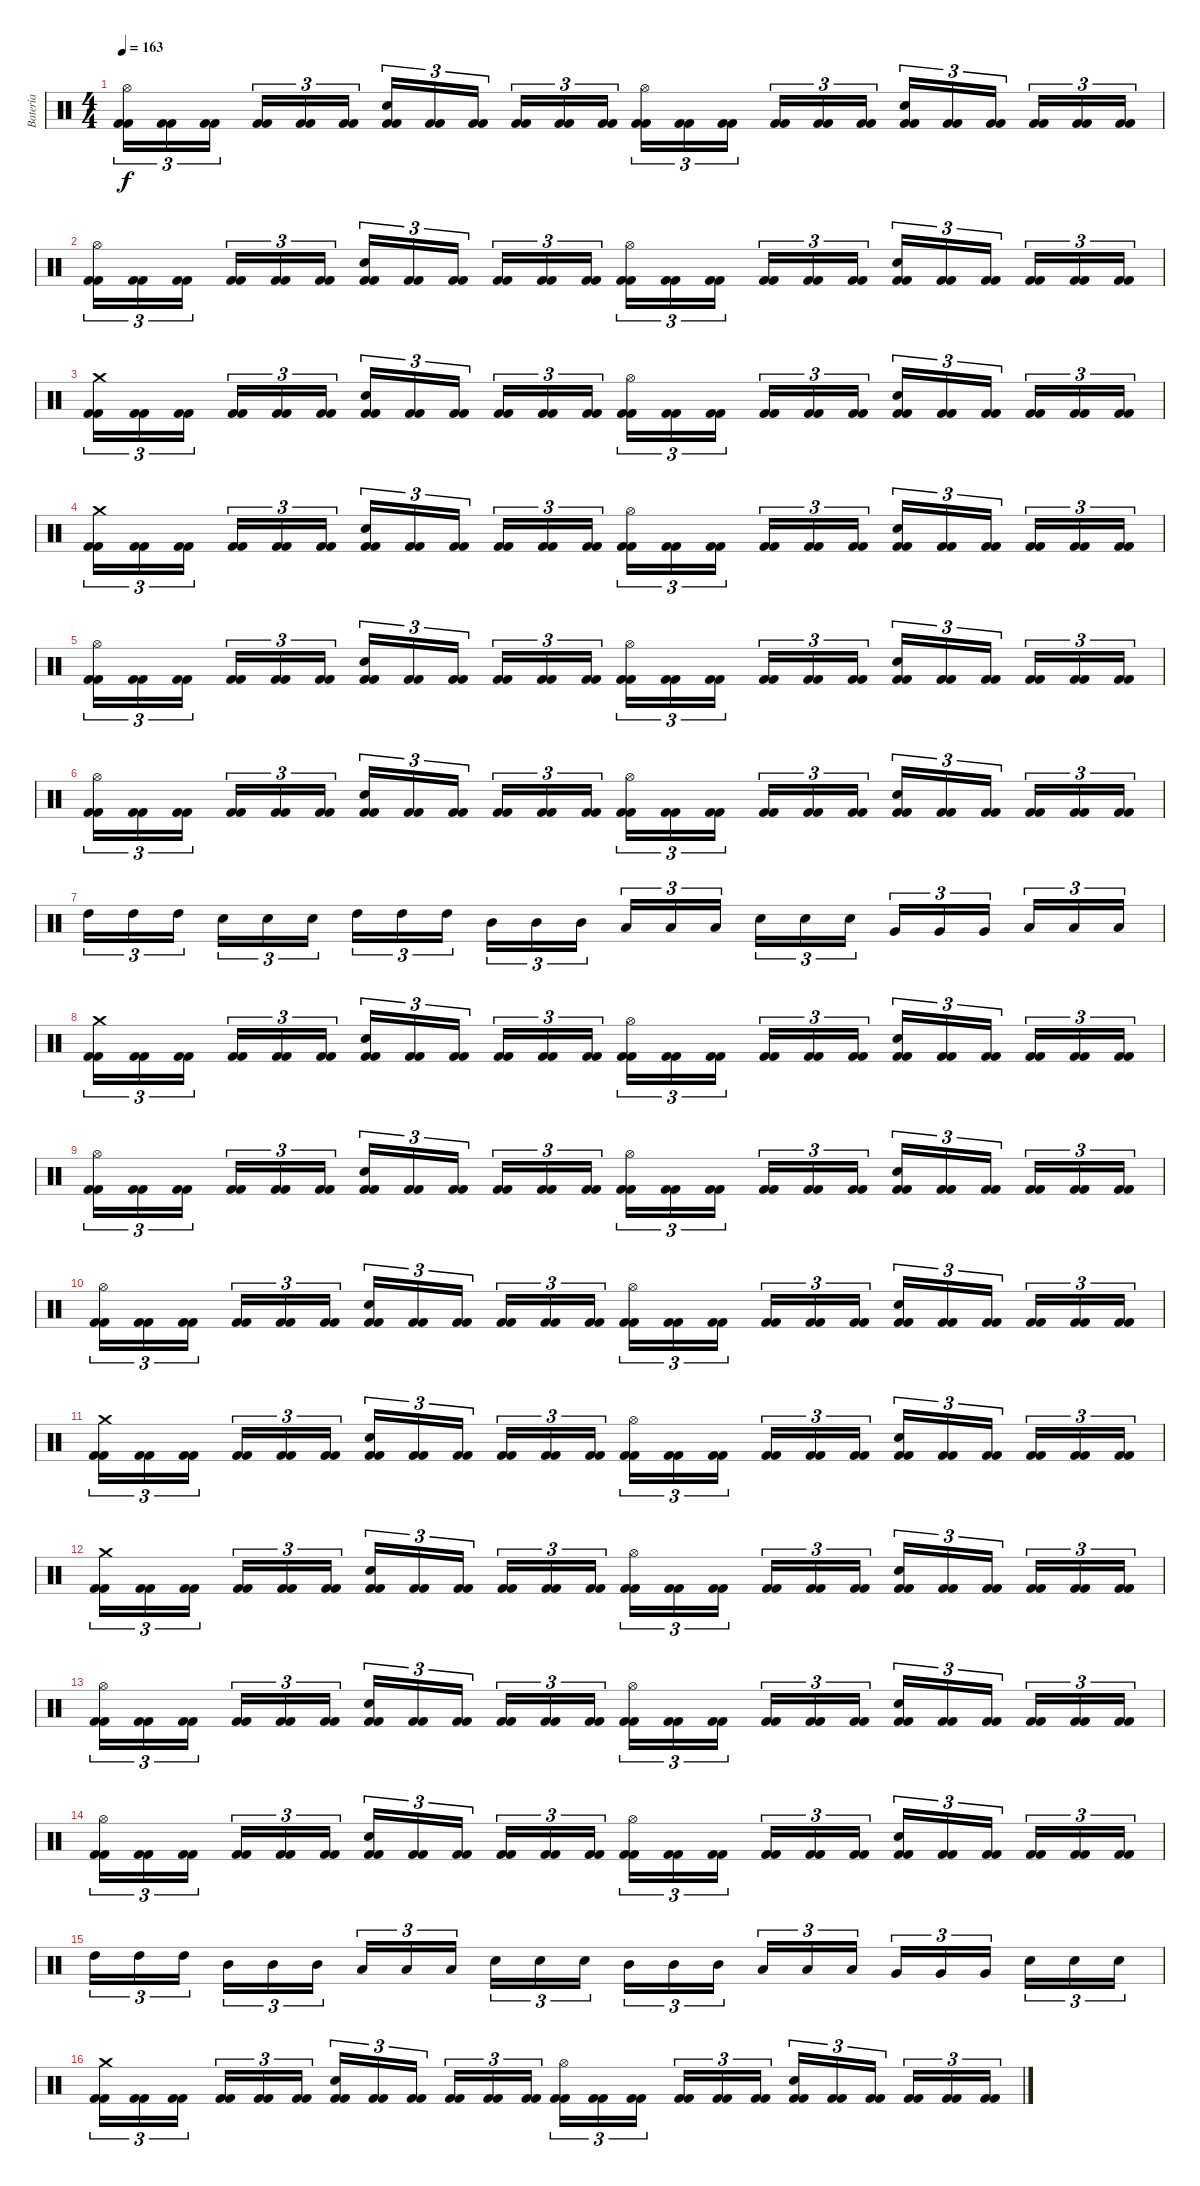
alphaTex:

\track ("Bateria" "Bateria") {instrument percussion}
\staff {score}
\articulation defaults
\ts (4 4)
\tempo 163
\clef neutral
\ks c
("Kick (hit) 2" "Kick (hit) 2" "Hi-Hat (open)").16{tu (3 2) dy f} ("Kick (hit) 2" "Kick (hit) 2").16{tu (3 2)} ("Kick (hit) 2" "Kick (hit) 2").16{tu (3 2)} ("Kick (hit) 2" "Kick (hit) 2").16{tu (3 2)} ("Kick (hit) 2" "Kick (hit) 2").16{tu (3 2)} ("Kick (hit) 2" "Kick (hit) 2").16{tu (3 2)} ("Kick (hit) 2" "Kick (hit) 2" "Snare (hit) 2").16{tu (3 2)} ("Kick (hit) 2" "Kick (hit) 2").16{tu (3 2)} ("Kick (hit) 2" "Kick (hit) 2").16{tu (3 2)} ("Kick (hit) 2" "Kick (hit) 2").16{tu (3 2)} ("Kick (hit) 2" "Kick (hit) 2").16{tu (3 2)} ("Kick (hit) 2" "Kick (hit) 2").16{tu (3 2)} ("Kick (hit) 2" "Kick (hit) 2" "Hi-Hat (open)").16{tu (3 2)} ("Kick (hit) 2" "Kick (hit) 2").16{tu (3 2)} ("Kick (hit) 2" "Kick (hit) 2").16{tu (3 2)} ("Kick (hit) 2" "Kick (hit) 2").16{tu (3 2)} ("Kick (hit) 2" "Kick (hit) 2").16{tu (3 2)} ("Kick (hit) 2" "Kick (hit) 2").16{tu (3 2)} ("Kick (hit) 2" "Kick (hit) 2" "Snare (hit) 2").16{tu (3 2)} ("Kick (hit) 2" "Kick (hit) 2").16{tu (3 2)} ("Kick (hit) 2" "Kick (hit) 2").16{tu (3 2)} ("Kick (hit) 2" "Kick (hit) 2").16{tu (3 2)} ("Kick (hit) 2" "Kick (hit) 2").16{tu (3 2)} ("Kick (hit) 2" "Kick (hit) 2").16{tu (3 2)} |
("Kick (hit) 2" "Kick (hit) 2" "Hi-Hat (open)").16{tu (3 2)} ("Kick (hit) 2" "Kick (hit) 2").16{tu (3 2)} ("Kick (hit) 2" "Kick (hit) 2").16{tu (3 2)} ("Kick (hit) 2" "Kick (hit) 2").16{tu (3 2)} ("Kick (hit) 2" "Kick (hit) 2").16{tu (3 2)} ("Kick (hit) 2" "Kick (hit) 2").16{tu (3 2)} ("Kick (hit) 2" "Kick (hit) 2" "Snare (hit) 2").16{tu (3 2)} ("Kick (hit) 2" "Kick (hit) 2").16{tu (3 2)} ("Kick (hit) 2" "Kick (hit) 2").16{tu (3 2)} ("Kick (hit) 2" "Kick (hit) 2").16{tu (3 2)} ("Kick (hit) 2" "Kick (hit) 2").16{tu (3 2)} ("Kick (hit) 2" "Kick (hit) 2").16{tu (3 2)} ("Kick (hit) 2" "Kick (hit) 2" "Hi-Hat (open)").16{tu (3 2)} ("Kick (hit) 2" "Kick (hit) 2").16{tu (3 2)} ("Kick (hit) 2" "Kick (hit) 2").16{tu (3 2)} ("Kick (hit) 2" "Kick (hit) 2").16{tu (3 2)} ("Kick (hit) 2" "Kick (hit) 2").16{tu (3 2)} ("Kick (hit) 2" "Kick (hit) 2").16{tu (3 2)} ("Kick (hit) 2" "Kick (hit) 2" "Snare (hit) 2").16{tu (3 2)} ("Kick (hit) 2" "Kick (hit) 2").16{tu (3 2)} ("Kick (hit) 2" "Kick (hit) 2").16{tu (3 2)} ("Kick (hit) 2" "Kick (hit) 2").16{tu (3 2)} ("Kick (hit) 2" "Kick (hit) 2").16{tu (3 2)} ("Kick (hit) 2" "Kick (hit) 2").16{tu (3 2)} |
("Kick (hit) 2" "Kick (hit) 2" "Crash medium (hit)").16{tu (3 2)} ("Kick (hit) 2" "Kick (hit) 2").16{tu (3 2)} ("Kick (hit) 2" "Kick (hit) 2").16{tu (3 2)} ("Kick (hit) 2" "Kick (hit) 2").16{tu (3 2)} ("Kick (hit) 2" "Kick (hit) 2").16{tu (3 2)} ("Kick (hit) 2" "Kick (hit) 2").16{tu (3 2)} ("Kick (hit) 2" "Kick (hit) 2" "Snare (hit) 2").16{tu (3 2)} ("Kick (hit) 2" "Kick (hit) 2").16{tu (3 2)} ("Kick (hit) 2" "Kick (hit) 2").16{tu (3 2)} ("Kick (hit) 2" "Kick (hit) 2").16{tu (3 2)} ("Kick (hit) 2" "Kick (hit) 2").16{tu (3 2)} ("Kick (hit) 2" "Kick (hit) 2").16{tu (3 2)} ("Kick (hit) 2" "Kick (hit) 2" "Hi-Hat (open)").16{tu (3 2)} ("Kick (hit) 2" "Kick (hit) 2").16{tu (3 2)} ("Kick (hit) 2" "Kick (hit) 2").16{tu (3 2)} ("Kick (hit) 2" "Kick (hit) 2").16{tu (3 2)} ("Kick (hit) 2" "Kick (hit) 2").16{tu (3 2)} ("Kick (hit) 2" "Kick (hit) 2").16{tu (3 2)} ("Kick (hit) 2" "Kick (hit) 2" "Snare (hit) 2").16{tu (3 2)} ("Kick (hit) 2" "Kick (hit) 2").16{tu (3 2)} ("Kick (hit) 2" "Kick (hit) 2").16{tu (3 2)} ("Kick (hit) 2" "Kick (hit) 2").16{tu (3 2)} ("Kick (hit) 2" "Kick (hit) 2").16{tu (3 2)} ("Kick (hit) 2" "Kick (hit) 2").16{tu (3 2)} |
("Kick (hit) 2" "Kick (hit) 2" "Crash medium (hit)").16{tu (3 2)} ("Kick (hit) 2" "Kick (hit) 2").16{tu (3 2)} ("Kick (hit) 2" "Kick (hit) 2").16{tu (3 2)} ("Kick (hit) 2" "Kick (hit) 2").16{tu (3 2)} ("Kick (hit) 2" "Kick (hit) 2").16{tu (3 2)} ("Kick (hit) 2" "Kick (hit) 2").16{tu (3 2)} ("Kick (hit) 2" "Kick (hit) 2" "Snare (hit) 2").16{tu (3 2)} ("Kick (hit) 2" "Kick (hit) 2").16{tu (3 2)} ("Kick (hit) 2" "Kick (hit) 2").16{tu (3 2)} ("Kick (hit) 2" "Kick (hit) 2").16{tu (3 2)} ("Kick (hit) 2" "Kick (hit) 2").16{tu (3 2)} ("Kick (hit) 2" "Kick (hit) 2").16{tu (3 2)} ("Kick (hit) 2" "Kick (hit) 2" "Hi-Hat (open)").16{tu (3 2)} ("Kick (hit) 2" "Kick (hit) 2").16{tu (3 2)} ("Kick (hit) 2" "Kick (hit) 2").16{tu (3 2)} ("Kick (hit) 2" "Kick (hit) 2").16{tu (3 2)} ("Kick (hit) 2" "Kick (hit) 2").16{tu (3 2)} ("Kick (hit) 2" "Kick (hit) 2").16{tu (3 2)} ("Kick (hit) 2" "Kick (hit) 2" "Snare (hit) 2").16{tu (3 2)} ("Kick (hit) 2" "Kick (hit) 2").16{tu (3 2)} ("Kick (hit) 2" "Kick (hit) 2").16{tu (3 2)} ("Kick (hit) 2" "Kick (hit) 2").16{tu (3 2)} ("Kick (hit) 2" "Kick (hit) 2").16{tu (3 2)} ("Kick (hit) 2" "Kick (hit) 2").16{tu (3 2)} |
("Kick (hit) 2" "Kick (hit) 2" "Hi-Hat (open)").16{tu (3 2)} ("Kick (hit) 2" "Kick (hit) 2").16{tu (3 2)} ("Kick (hit) 2" "Kick (hit) 2").16{tu (3 2)} ("Kick (hit) 2" "Kick (hit) 2").16{tu (3 2)} ("Kick (hit) 2" "Kick (hit) 2").16{tu (3 2)} ("Kick (hit) 2" "Kick (hit) 2").16{tu (3 2)} ("Kick (hit) 2" "Kick (hit) 2" "Snare (hit) 2").16{tu (3 2)} ("Kick (hit) 2" "Kick (hit) 2").16{tu (3 2)} ("Kick (hit) 2" "Kick (hit) 2").16{tu (3 2)} ("Kick (hit) 2" "Kick (hit) 2").16{tu (3 2)} ("Kick (hit) 2" "Kick (hit) 2").16{tu (3 2)} ("Kick (hit) 2" "Kick (hit) 2").16{tu (3 2)} ("Kick (hit) 2" "Kick (hit) 2" "Hi-Hat (open)").16{tu (3 2)} ("Kick (hit) 2" "Kick (hit) 2").16{tu (3 2)} ("Kick (hit) 2" "Kick (hit) 2").16{tu (3 2)} ("Kick (hit) 2" "Kick (hit) 2").16{tu (3 2)} ("Kick (hit) 2" "Kick (hit) 2").16{tu (3 2)} ("Kick (hit) 2" "Kick (hit) 2").16{tu (3 2)} ("Kick (hit) 2" "Kick (hit) 2" "Snare (hit) 2").16{tu (3 2)} ("Kick (hit) 2" "Kick (hit) 2").16{tu (3 2)} ("Kick (hit) 2" "Kick (hit) 2").16{tu (3 2)} ("Kick (hit) 2" "Kick (hit) 2").16{tu (3 2)} ("Kick (hit) 2" "Kick (hit) 2").16{tu (3 2)} ("Kick (hit) 2" "Kick (hit) 2").16{tu (3 2)} |
("Kick (hit) 2" "Kick (hit) 2" "Hi-Hat (open)").16{tu (3 2)} ("Kick (hit) 2" "Kick (hit) 2").16{tu (3 2)} ("Kick (hit) 2" "Kick (hit) 2").16{tu (3 2)} ("Kick (hit) 2" "Kick (hit) 2").16{tu (3 2)} ("Kick (hit) 2" "Kick (hit) 2").16{tu (3 2)} ("Kick (hit) 2" "Kick (hit) 2").16{tu (3 2)} ("Kick (hit) 2" "Kick (hit) 2" "Snare (hit) 2").16{tu (3 2)} ("Kick (hit) 2" "Kick (hit) 2").16{tu (3 2)} ("Kick (hit) 2" "Kick (hit) 2").16{tu (3 2)} ("Kick (hit) 2" "Kick (hit) 2").16{tu (3 2)} ("Kick (hit) 2" "Kick (hit) 2").16{tu (3 2)} ("Kick (hit) 2" "Kick (hit) 2").16{tu (3 2)} ("Kick (hit) 2" "Kick (hit) 2" "Hi-Hat (open)").16{tu (3 2)} ("Kick (hit) 2" "Kick (hit) 2").16{tu (3 2)} ("Kick (hit) 2" "Kick (hit) 2").16{tu (3 2)} ("Kick (hit) 2" "Kick (hit) 2").16{tu (3 2)} ("Kick (hit) 2" "Kick (hit) 2").16{tu (3 2)} ("Kick (hit) 2" "Kick (hit) 2").16{tu (3 2)} ("Kick (hit) 2" "Kick (hit) 2" "Snare (hit) 2").16{tu (3 2)} ("Kick (hit) 2" "Kick (hit) 2").16{tu (3 2)} ("Kick (hit) 2" "Kick (hit) 2").16{tu (3 2)} ("Kick (hit) 2" "Kick (hit) 2").16{tu (3 2)} ("Kick (hit) 2" "Kick (hit) 2").16{tu (3 2)} ("Kick (hit) 2" "Kick (hit) 2").16{tu (3 2)} |
"High Tom (hit)".16{tu (3 2)} "High Tom (hit)".16{tu (3 2)} "High Tom (hit)".16{tu (3 2)} "Snare (hit) 2".16{tu (3 2)} "Snare (hit) 2".16{tu (3 2)} "Snare (hit) 2".16{tu (3 2)} "High Tom (hit)".16{tu (3 2)} "High Tom (hit)".16{tu (3 2)} "High Tom (hit)".16{tu (3 2)} "Mid Tom (hit)".16{tu (3 2)} "Mid Tom (hit)".16{tu (3 2)} "Mid Tom (hit)".16{tu (3 2)} "Low Tom (hit)".16{tu (3 2)} "Low Tom (hit)".16{tu (3 2)} "Low Tom (hit)".16{tu (3 2)} "Snare (hit) 2".16{tu (3 2)} "Snare (hit) 2".16{tu (3 2)} "Snare (hit) 2".16{tu (3 2)} "Very Low Tom (hit)".16{tu (3 2)} "Very Low Tom (hit)".16{tu (3 2)} "Very Low Tom (hit)".16{tu (3 2)} "Low Floor Tom (hit)".16{tu (3 2)} "Low Floor Tom (hit)".16{tu (3 2)} "Low Floor Tom (hit)".16{tu (3 2)} |
("Kick (hit) 2" "Kick (hit) 2" "Crash medium (hit)").16{tu (3 2)} ("Kick (hit) 2" "Kick (hit) 2").16{tu (3 2)} ("Kick (hit) 2" "Kick (hit) 2").16{tu (3 2)} ("Kick (hit) 2" "Kick (hit) 2").16{tu (3 2)} ("Kick (hit) 2" "Kick (hit) 2").16{tu (3 2)} ("Kick (hit) 2" "Kick (hit) 2").16{tu (3 2)} ("Kick (hit) 2" "Kick (hit) 2" "Snare (hit) 2").16{tu (3 2)} ("Kick (hit) 2" "Kick (hit) 2").16{tu (3 2)} ("Kick (hit) 2" "Kick (hit) 2").16{tu (3 2)} ("Kick (hit) 2" "Kick (hit) 2").16{tu (3 2)} ("Kick (hit) 2" "Kick (hit) 2").16{tu (3 2)} ("Kick (hit) 2" "Kick (hit) 2").16{tu (3 2)} ("Kick (hit) 2" "Kick (hit) 2" "Hi-Hat (open)").16{tu (3 2)} ("Kick (hit) 2" "Kick (hit) 2").16{tu (3 2)} ("Kick (hit) 2" "Kick (hit) 2").16{tu (3 2)} ("Kick (hit) 2" "Kick (hit) 2").16{tu (3 2)} ("Kick (hit) 2" "Kick (hit) 2").16{tu (3 2)} ("Kick (hit) 2" "Kick (hit) 2").16{tu (3 2)} ("Kick (hit) 2" "Kick (hit) 2" "Snare (hit) 2").16{tu (3 2)} ("Kick (hit) 2" "Kick (hit) 2").16{tu (3 2)} ("Kick (hit) 2" "Kick (hit) 2").16{tu (3 2)} ("Kick (hit) 2" "Kick (hit) 2").16{tu (3 2)} ("Kick (hit) 2" "Kick (hit) 2").16{tu (3 2)} ("Kick (hit) 2" "Kick (hit) 2").16{tu (3 2)} |
("Kick (hit) 2" "Kick (hit) 2" "Hi-Hat (open)").16{tu (3 2)} ("Kick (hit) 2" "Kick (hit) 2").16{tu (3 2)} ("Kick (hit) 2" "Kick (hit) 2").16{tu (3 2)} ("Kick (hit) 2" "Kick (hit) 2").16{tu (3 2)} ("Kick (hit) 2" "Kick (hit) 2").16{tu (3 2)} ("Kick (hit) 2" "Kick (hit) 2").16{tu (3 2)} ("Kick (hit) 2" "Kick (hit) 2" "Snare (hit) 2").16{tu (3 2)} ("Kick (hit) 2" "Kick (hit) 2").16{tu (3 2)} ("Kick (hit) 2" "Kick (hit) 2").16{tu (3 2)} ("Kick (hit) 2" "Kick (hit) 2").16{tu (3 2)} ("Kick (hit) 2" "Kick (hit) 2").16{tu (3 2)} ("Kick (hit) 2" "Kick (hit) 2").16{tu (3 2)} ("Kick (hit) 2" "Kick (hit) 2" "Hi-Hat (open)").16{tu (3 2)} ("Kick (hit) 2" "Kick (hit) 2").16{tu (3 2)} ("Kick (hit) 2" "Kick (hit) 2").16{tu (3 2)} ("Kick (hit) 2" "Kick (hit) 2").16{tu (3 2)} ("Kick (hit) 2" "Kick (hit) 2").16{tu (3 2)} ("Kick (hit) 2" "Kick (hit) 2").16{tu (3 2)} ("Kick (hit) 2" "Kick (hit) 2" "Snare (hit) 2").16{tu (3 2)} ("Kick (hit) 2" "Kick (hit) 2").16{tu (3 2)} ("Kick (hit) 2" "Kick (hit) 2").16{tu (3 2)} ("Kick (hit) 2" "Kick (hit) 2").16{tu (3 2)} ("Kick (hit) 2" "Kick (hit) 2").16{tu (3 2)} ("Kick (hit) 2" "Kick (hit) 2").16{tu (3 2)} |
("Kick (hit) 2" "Kick (hit) 2" "Hi-Hat (open)").16{tu (3 2)} ("Kick (hit) 2" "Kick (hit) 2").16{tu (3 2)} ("Kick (hit) 2" "Kick (hit) 2").16{tu (3 2)} ("Kick (hit) 2" "Kick (hit) 2").16{tu (3 2)} ("Kick (hit) 2" "Kick (hit) 2").16{tu (3 2)} ("Kick (hit) 2" "Kick (hit) 2").16{tu (3 2)} ("Kick (hit) 2" "Kick (hit) 2" "Snare (hit) 2").16{tu (3 2)} ("Kick (hit) 2" "Kick (hit) 2").16{tu (3 2)} ("Kick (hit) 2" "Kick (hit) 2").16{tu (3 2)} ("Kick (hit) 2" "Kick (hit) 2").16{tu (3 2)} ("Kick (hit) 2" "Kick (hit) 2").16{tu (3 2)} ("Kick (hit) 2" "Kick (hit) 2").16{tu (3 2)} ("Kick (hit) 2" "Kick (hit) 2" "Hi-Hat (open)").16{tu (3 2)} ("Kick (hit) 2" "Kick (hit) 2").16{tu (3 2)} ("Kick (hit) 2" "Kick (hit) 2").16{tu (3 2)} ("Kick (hit) 2" "Kick (hit) 2").16{tu (3 2)} ("Kick (hit) 2" "Kick (hit) 2").16{tu (3 2)} ("Kick (hit) 2" "Kick (hit) 2").16{tu (3 2)} ("Kick (hit) 2" "Kick (hit) 2" "Snare (hit) 2").16{tu (3 2)} ("Kick (hit) 2" "Kick (hit) 2").16{tu (3 2)} ("Kick (hit) 2" "Kick (hit) 2").16{tu (3 2)} ("Kick (hit) 2" "Kick (hit) 2").16{tu (3 2)} ("Kick (hit) 2" "Kick (hit) 2").16{tu (3 2)} ("Kick (hit) 2" "Kick (hit) 2").16{tu (3 2)} |
("Kick (hit) 2" "Kick (hit) 2" "Crash medium (hit)").16{tu (3 2)} ("Kick (hit) 2" "Kick (hit) 2").16{tu (3 2)} ("Kick (hit) 2" "Kick (hit) 2").16{tu (3 2)} ("Kick (hit) 2" "Kick (hit) 2").16{tu (3 2)} ("Kick (hit) 2" "Kick (hit) 2").16{tu (3 2)} ("Kick (hit) 2" "Kick (hit) 2").16{tu (3 2)} ("Kick (hit) 2" "Kick (hit) 2" "Snare (hit) 2").16{tu (3 2)} ("Kick (hit) 2" "Kick (hit) 2").16{tu (3 2)} ("Kick (hit) 2" "Kick (hit) 2").16{tu (3 2)} ("Kick (hit) 2" "Kick (hit) 2").16{tu (3 2)} ("Kick (hit) 2" "Kick (hit) 2").16{tu (3 2)} ("Kick (hit) 2" "Kick (hit) 2").16{tu (3 2)} ("Kick (hit) 2" "Kick (hit) 2" "Hi-Hat (open)").16{tu (3 2)} ("Kick (hit) 2" "Kick (hit) 2").16{tu (3 2)} ("Kick (hit) 2" "Kick (hit) 2").16{tu (3 2)} ("Kick (hit) 2" "Kick (hit) 2").16{tu (3 2)} ("Kick (hit) 2" "Kick (hit) 2").16{tu (3 2)} ("Kick (hit) 2" "Kick (hit) 2").16{tu (3 2)} ("Kick (hit) 2" "Kick (hit) 2" "Snare (hit) 2").16{tu (3 2)} ("Kick (hit) 2" "Kick (hit) 2").16{tu (3 2)} ("Kick (hit) 2" "Kick (hit) 2").16{tu (3 2)} ("Kick (hit) 2" "Kick (hit) 2").16{tu (3 2)} ("Kick (hit) 2" "Kick (hit) 2").16{tu (3 2)} ("Kick (hit) 2" "Kick (hit) 2").16{tu (3 2)} |
("Kick (hit) 2" "Kick (hit) 2" "Crash medium (hit)").16{tu (3 2)} ("Kick (hit) 2" "Kick (hit) 2").16{tu (3 2)} ("Kick (hit) 2" "Kick (hit) 2").16{tu (3 2)} ("Kick (hit) 2" "Kick (hit) 2").16{tu (3 2)} ("Kick (hit) 2" "Kick (hit) 2").16{tu (3 2)} ("Kick (hit) 2" "Kick (hit) 2").16{tu (3 2)} ("Kick (hit) 2" "Kick (hit) 2" "Snare (hit) 2").16{tu (3 2)} ("Kick (hit) 2" "Kick (hit) 2").16{tu (3 2)} ("Kick (hit) 2" "Kick (hit) 2").16{tu (3 2)} ("Kick (hit) 2" "Kick (hit) 2").16{tu (3 2)} ("Kick (hit) 2" "Kick (hit) 2").16{tu (3 2)} ("Kick (hit) 2" "Kick (hit) 2").16{tu (3 2)} ("Kick (hit) 2" "Kick (hit) 2" "Hi-Hat (open)").16{tu (3 2)} ("Kick (hit) 2" "Kick (hit) 2").16{tu (3 2)} ("Kick (hit) 2" "Kick (hit) 2").16{tu (3 2)} ("Kick (hit) 2" "Kick (hit) 2").16{tu (3 2)} ("Kick (hit) 2" "Kick (hit) 2").16{tu (3 2)} ("Kick (hit) 2" "Kick (hit) 2").16{tu (3 2)} ("Kick (hit) 2" "Kick (hit) 2" "Snare (hit) 2").16{tu (3 2)} ("Kick (hit) 2" "Kick (hit) 2").16{tu (3 2)} ("Kick (hit) 2" "Kick (hit) 2").16{tu (3 2)} ("Kick (hit) 2" "Kick (hit) 2").16{tu (3 2)} ("Kick (hit) 2" "Kick (hit) 2").16{tu (3 2)} ("Kick (hit) 2" "Kick (hit) 2").16{tu (3 2)} |
("Kick (hit) 2" "Kick (hit) 2" "Hi-Hat (open)").16{tu (3 2)} ("Kick (hit) 2" "Kick (hit) 2").16{tu (3 2)} ("Kick (hit) 2" "Kick (hit) 2").16{tu (3 2)} ("Kick (hit) 2" "Kick (hit) 2").16{tu (3 2)} ("Kick (hit) 2" "Kick (hit) 2").16{tu (3 2)} ("Kick (hit) 2" "Kick (hit) 2").16{tu (3 2)} ("Kick (hit) 2" "Kick (hit) 2" "Snare (hit) 2").16{tu (3 2)} ("Kick (hit) 2" "Kick (hit) 2").16{tu (3 2)} ("Kick (hit) 2" "Kick (hit) 2").16{tu (3 2)} ("Kick (hit) 2" "Kick (hit) 2").16{tu (3 2)} ("Kick (hit) 2" "Kick (hit) 2").16{tu (3 2)} ("Kick (hit) 2" "Kick (hit) 2").16{tu (3 2)} ("Kick (hit) 2" "Kick (hit) 2" "Hi-Hat (open)").16{tu (3 2)} ("Kick (hit) 2" "Kick (hit) 2").16{tu (3 2)} ("Kick (hit) 2" "Kick (hit) 2").16{tu (3 2)} ("Kick (hit) 2" "Kick (hit) 2").16{tu (3 2)} ("Kick (hit) 2" "Kick (hit) 2").16{tu (3 2)} ("Kick (hit) 2" "Kick (hit) 2").16{tu (3 2)} ("Kick (hit) 2" "Kick (hit) 2" "Snare (hit) 2").16{tu (3 2)} ("Kick (hit) 2" "Kick (hit) 2").16{tu (3 2)} ("Kick (hit) 2" "Kick (hit) 2").16{tu (3 2)} ("Kick (hit) 2" "Kick (hit) 2").16{tu (3 2)} ("Kick (hit) 2" "Kick (hit) 2").16{tu (3 2)} ("Kick (hit) 2" "Kick (hit) 2").16{tu (3 2)} |
("Kick (hit) 2" "Kick (hit) 2" "Hi-Hat (open)").16{tu (3 2)} ("Kick (hit) 2" "Kick (hit) 2").16{tu (3 2)} ("Kick (hit) 2" "Kick (hit) 2").16{tu (3 2)} ("Kick (hit) 2" "Kick (hit) 2").16{tu (3 2)} ("Kick (hit) 2" "Kick (hit) 2").16{tu (3 2)} ("Kick (hit) 2" "Kick (hit) 2").16{tu (3 2)} ("Kick (hit) 2" "Kick (hit) 2" "Snare (hit) 2").16{tu (3 2)} ("Kick (hit) 2" "Kick (hit) 2").16{tu (3 2)} ("Kick (hit) 2" "Kick (hit) 2").16{tu (3 2)} ("Kick (hit) 2" "Kick (hit) 2").16{tu (3 2)} ("Kick (hit) 2" "Kick (hit) 2").16{tu (3 2)} ("Kick (hit) 2" "Kick (hit) 2").16{tu (3 2)} ("Kick (hit) 2" "Kick (hit) 2" "Hi-Hat (open)").16{tu (3 2)} ("Kick (hit) 2" "Kick (hit) 2").16{tu (3 2)} ("Kick (hit) 2" "Kick (hit) 2").16{tu (3 2)} ("Kick (hit) 2" "Kick (hit) 2").16{tu (3 2)} ("Kick (hit) 2" "Kick (hit) 2").16{tu (3 2)} ("Kick (hit) 2" "Kick (hit) 2").16{tu (3 2)} ("Kick (hit) 2" "Kick (hit) 2" "Snare (hit) 2").16{tu (3 2)} ("Kick (hit) 2" "Kick (hit) 2").16{tu (3 2)} ("Kick (hit) 2" "Kick (hit) 2").16{tu (3 2)} ("Kick (hit) 2" "Kick (hit) 2").16{tu (3 2)} ("Kick (hit) 2" "Kick (hit) 2").16{tu (3 2)} ("Kick (hit) 2" "Kick (hit) 2").16{tu (3 2)} |
"High Tom (hit)".16{tu (3 2)} "High Tom (hit)".16{tu (3 2)} "High Tom (hit)".16{tu (3 2)} "Mid Tom (hit)".16{tu (3 2)} "Mid Tom (hit)".16{tu (3 2)} "Mid Tom (hit)".16{tu (3 2)} "Low Tom (hit)".16{tu (3 2)} "Low Tom (hit)".16{tu (3 2)} "Low Tom (hit)".16{tu (3 2)} "Snare (hit) 2".16{tu (3 2)} "Snare (hit) 2".16{tu (3 2)} "Snare (hit) 2".16{tu (3 2)} "Mid Tom (hit)".16{tu (3 2)} "Mid Tom (hit)".16{tu (3 2)} "Mid Tom (hit)".16{tu (3 2)} "Low Tom (hit)".16{tu (3 2)} "Low Tom (hit)".16{tu (3 2)} "Low Tom (hit)".16{tu (3 2)} "Very Low Tom (hit)".16{tu (3 2)} "Very Low Tom (hit)".16{tu (3 2)} "Very Low Tom (hit)".16{tu (3 2)} "Snare (hit) 2".16{tu (3 2)} "Snare (hit) 2".16{tu (3 2)} "Snare (hit) 2".16{tu (3 2)} |
("Kick (hit) 2" "Kick (hit) 2" "Crash medium (hit)").16{tu (3 2)} ("Kick (hit) 2" "Kick (hit) 2").16{tu (3 2)} ("Kick (hit) 2" "Kick (hit) 2").16{tu (3 2)} ("Kick (hit) 2" "Kick (hit) 2").16{tu (3 2)} ("Kick (hit) 2" "Kick (hit) 2").16{tu (3 2)} ("Kick (hit) 2" "Kick (hit) 2").16{tu (3 2)} ("Kick (hit) 2" "Kick (hit) 2" "Snare (hit) 2").16{tu (3 2)} ("Kick (hit) 2" "Kick (hit) 2").16{tu (3 2)} ("Kick (hit) 2" "Kick (hit) 2").16{tu (3 2)} ("Kick (hit) 2" "Kick (hit) 2").16{tu (3 2)} ("Kick (hit) 2" "Kick (hit) 2").16{tu (3 2)} ("Kick (hit) 2" "Kick (hit) 2").16{tu (3 2)} ("Kick (hit) 2" "Kick (hit) 2" "Hi-Hat (open)").16{tu (3 2)} ("Kick (hit) 2" "Kick (hit) 2").16{tu (3 2)} ("Kick (hit) 2" "Kick (hit) 2").16{tu (3 2)} ("Kick (hit) 2" "Kick (hit) 2").16{tu (3 2)} ("Kick (hit) 2" "Kick (hit) 2").16{tu (3 2)} ("Kick (hit) 2" "Kick (hit) 2").16{tu (3 2)} ("Kick (hit) 2" "Kick (hit) 2" "Snare (hit) 2").16{tu (3 2)} ("Kick (hit) 2" "Kick (hit) 2").16{tu (3 2)} ("Kick (hit) 2" "Kick (hit) 2").16{tu (3 2)} ("Kick (hit) 2" "Kick (hit) 2").16{tu (3 2)} ("Kick (hit) 2" "Kick (hit) 2").16{tu (3 2)} ("Kick (hit) 2" "Kick (hit) 2").16{tu (3 2)}
